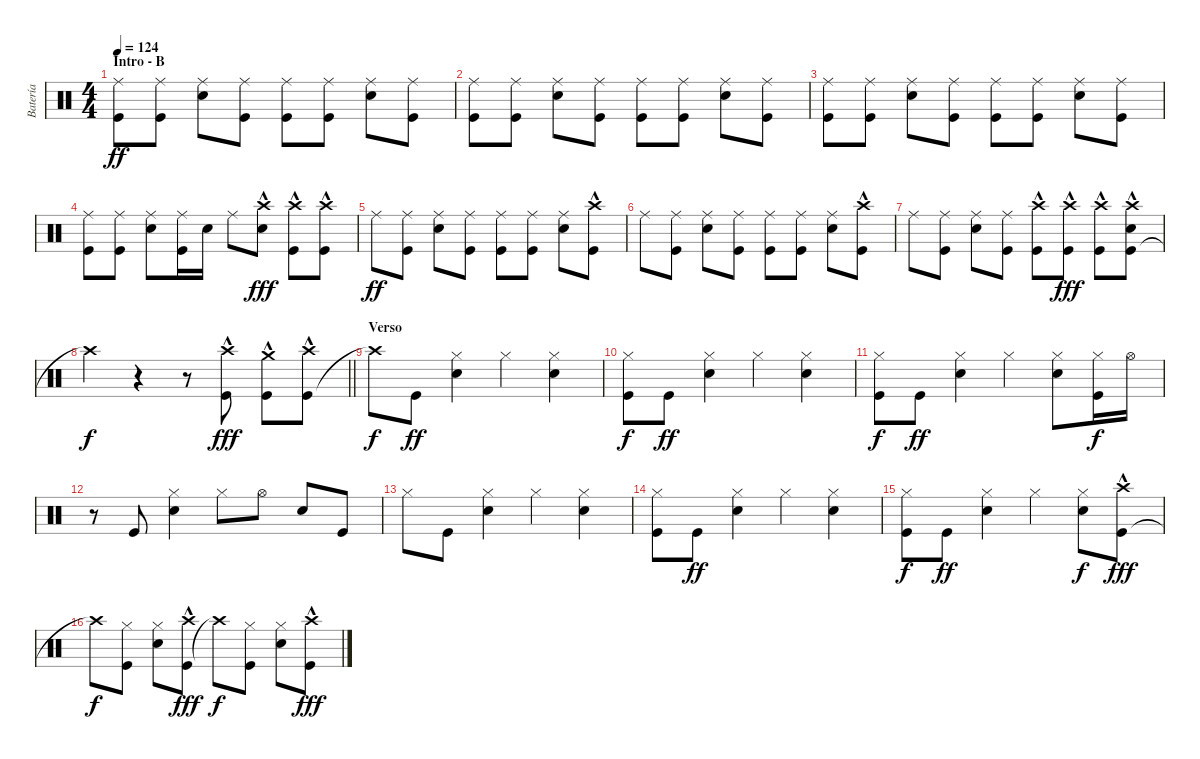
\track ("Batería" "Batería") {instrument percussion}
\staff {score}
\articulation defaults
\ts (4 4)
\section ("" "Intro - B")
\tempo 124
\clef neutral
\ks c
("Ride (middle)" "Kick (hit)").8{dy ff} ("Ride (middle)" "Kick (hit)").8 ("Ride (middle)" "Snare (hit) 2").8 ("Ride (middle)" "Kick (hit)").8 ("Ride (middle)" "Kick (hit)").8 ("Ride (middle)" "Kick (hit)").8 ("Ride (middle)" "Snare (hit) 2").8 ("Ride (middle)" "Kick (hit)").8 |
("Ride (middle)" "Kick (hit)").8 ("Ride (middle)" "Kick (hit)").8 ("Ride (middle)" "Snare (hit) 2").8 ("Ride (middle)" "Kick (hit)").8 ("Ride (middle)" "Kick (hit)").8 ("Ride (middle)" "Kick (hit)").8 ("Ride (middle)" "Snare (hit) 2").8 ("Ride (middle)" "Kick (hit)").8 |
("Ride (middle)" "Kick (hit)").8 ("Ride (middle)" "Kick (hit)").8 ("Ride (middle)" "Snare (hit) 2").8 ("Ride (middle)" "Kick (hit)").8 ("Ride (middle)" "Kick (hit)").8 ("Ride (middle)" "Kick (hit)").8 ("Ride (middle)" "Snare (hit) 2").8 ("Ride (middle)" "Kick (hit)").8 |
("Ride (middle)" "Kick (hit)").8 ("Ride (middle)" "Kick (hit)").8 ("Ride (middle)" "Snare (hit) 2").8 ("Ride (middle)" "Kick (hit)").16 "Snare (hit) 2".16 "Ride (middle)".8 ("Snare (hit) 2" "Crash high (hit)"{hac}).8{dy fff} ("Crash high (hit)" "Kick (hit)"{hac}).8 ("Kick (hit)" "Crash high (hit)"{hac}).8 |
"Ride (middle)".8{dy ff} ("Ride (middle)" "Kick (hit)").8 ("Ride (middle)" "Snare (hit) 2").8 ("Ride (middle)" "Kick (hit)").8 ("Ride (middle)" "Kick (hit)").8 ("Ride (middle)" "Kick (hit)").8 ("Ride (middle)" "Snare (hit) 2").8 ("Crash high (hit)"{hac} "Kick (hit)").8 |
"Ride (middle)".8 ("Ride (middle)" "Kick (hit)").8 ("Ride (middle)" "Snare (hit) 2").8 ("Ride (middle)" "Kick (hit)").8 ("Ride (middle)" "Kick (hit)").8 ("Ride (middle)" "Kick (hit)").8 ("Ride (middle)" "Snare (hit) 2").8 ("Crash high (hit)"{hac} "Kick (hit)").8 |
"Ride (middle)".8 ("Ride (middle)" "Kick (hit)").8 ("Ride (middle)" "Snare (hit) 2").8 ("Ride (middle)" "Kick (hit)").8 ("Crash high (hit)"{hac} "Kick (hit)").8 ("Kick (hit)" "Crash high (hit)"{hac}).8{dy fff} ("Kick (hit)" "Crash high (hit)"{hac}).8 ("Kick (hit)" "Snare (hit) 2" "Crash high (hit)"{hac}).8 |
\barLineRight lightlight "Crash high (hit)"{t}.4{dy f}
r.4 r.8 ("Kick (hit)" "Crash high (hit)"{hac}).8{dy fff} ("Kick (hit)" "Crash medium (hit)"{hac}).8 ("Kick (hit)" "Crash high (hit)"{hac}).8 |
\section ("" "Verso")
"Crash high (hit)"{t}.8{dy f} "Kick (hit)".8{dy ff} ("Snare (hit) 2" "Hi-Hat (closed)").4 "Hi-Hat (closed)".4 ("Snare (hit) 2" "Hi-Hat (closed)").4 |
("Kick (hit)" "Hi-Hat (closed)").8{dy f} "Kick (hit)".8{dy ff} ("Snare (hit) 2" "Hi-Hat (closed)").4 "Hi-Hat (closed)".4 ("Snare (hit) 2" "Hi-Hat (closed)").4 |
("Kick (hit)" "Hi-Hat (closed)").8{dy f} "Kick (hit)".8{dy ff} ("Snare (hit) 2" "Hi-Hat (closed)").4 "Hi-Hat (closed)".4 ("Snare (hit) 2" "Hi-Hat (closed)").8 ("Kick (hit)" "Hi-Hat (closed)").16{dy f} "Hi-Hat (open)".16 |
r.8 "Kick (hit)".8 ("Snare (hit) 2" "Hi-Hat (closed)").4 "Hi-Hat (closed)".8 "Hi-Hat (open)".8 "Snare (hit) 2".8 "Kick (hit)".8 |
"Hi-Hat (closed)".8 "Kick (hit)".8 ("Snare (hit) 2" "Hi-Hat (closed)").4 "Hi-Hat (closed)".4 ("Hi-Hat (closed)" "Snare (hit) 2").4 |
("Kick (hit)" "Hi-Hat (closed)").8 "Kick (hit)".8{dy ff} ("Snare (hit) 2" "Hi-Hat (closed)").4 "Hi-Hat (closed)".4 ("Snare (hit) 2" "Hi-Hat (closed)").4 |
("Kick (hit)" "Hi-Hat (closed)").8{dy f} "Kick (hit)".8{dy ff} ("Snare (hit) 2" "Hi-Hat (closed)").4 "Hi-Hat (closed)".4 ("Hi-Hat (closed)" "Snare (hit) 2").8{dy f} ("Kick (hit)" "Crash high (hit)"{hac}).8{dy fff} |
"Crash high (hit)"{t}.8{dy f} ("Kick (hit)" "Hi-Hat (closed)").8 ("Hi-Hat (closed)" "Snare (hit) 2").8 ("Kick (hit)" "Crash high (hit)"{hac}).8{dy fff} "Crash high (hit)"{t}.8{dy f} ("Hi-Hat (closed)" "Kick (hit)").8 ("Snare (hit) 2" "Hi-Hat (closed)").8 ("Kick (hit)" "Crash high (hit)"{hac}).8{dy fff}
